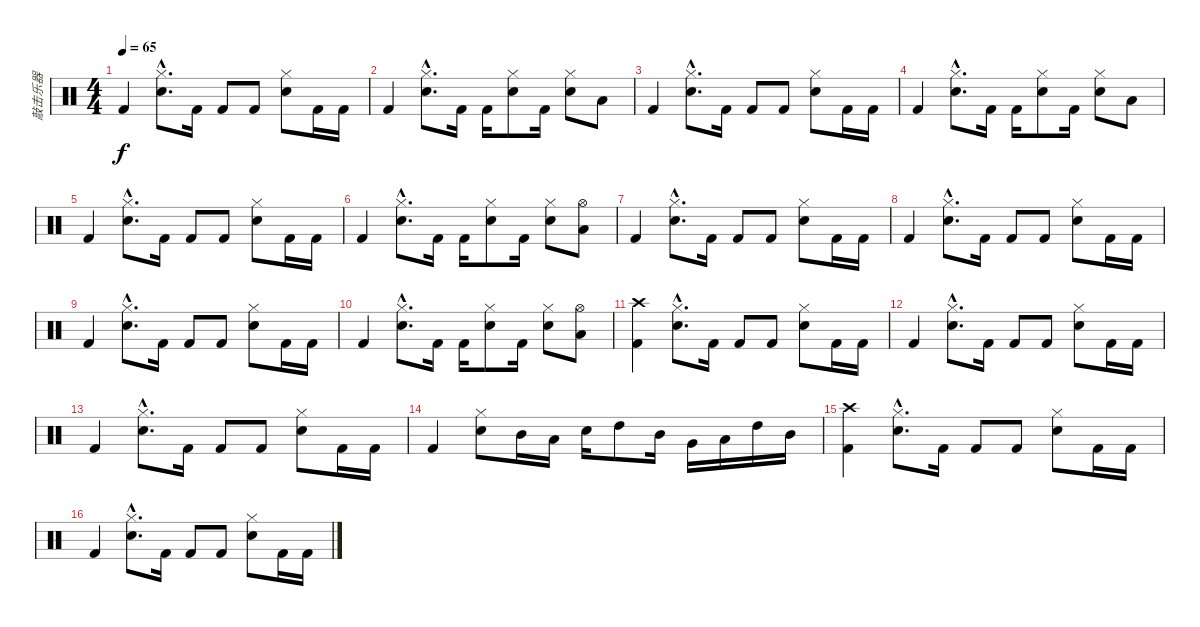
\track ("敲击乐器" "敲击乐器") {instrument percussion}
\staff {score}
\articulation defaults
\ts (4 4)
\tempo 65
\clef neutral
\ks c "Kick (hit) 2".4{dy f}
("Hi-Hat (closed)"{hac} "Electric Snare (hit)"{hac}).8{d} "Kick (hit) 2".16 "Kick (hit) 2".8 "Kick (hit) 2".8 ("Hi-Hat (closed)" "Electric Snare (hit)").8 "Kick (hit) 2".16 "Kick (hit) 2".16 |
"Kick (hit) 2".4 ("Hi-Hat (closed)"{hac} "Electric Snare (hit)"{hac}).8{d} "Kick (hit) 2".16 "Kick (hit) 2".16 ("Snare (hit) 2" "Hi-Hat (closed)").8 "Kick (hit) 2".16 ("Hi-Hat (closed)" "Snare (hit) 2").8 "Low Tom (hit)".8 |
"Kick (hit) 2".4 ("Hi-Hat (closed)"{hac} "Snare (hit) 2"{hac}).8{d} "Kick (hit) 2".16 "Kick (hit) 2".8 "Kick (hit) 2".8 ("Hi-Hat (closed)" "Snare (hit) 2").8 "Kick (hit) 2".16 "Kick (hit) 2".16 |
"Kick (hit) 2".4 ("Hi-Hat (closed)"{hac} "Electric Snare (hit)"{hac}).8{d} "Kick (hit) 2".16 "Kick (hit) 2".16 ("Snare (hit) 2" "Hi-Hat (closed)").8 "Kick (hit) 2".16 ("Hi-Hat (closed)" "Snare (hit) 2").8 "Low Tom (hit)".8 |
"Kick (hit) 2".4 ("Hi-Hat (closed)"{hac} "Snare (hit) 2"{hac}).8{d} "Kick (hit) 2".16 "Kick (hit) 2".8 "Kick (hit) 2".8 ("Hi-Hat (closed)" "Snare (hit) 2").8 "Kick (hit) 2".16 "Kick (hit) 2".16 |
"Kick (hit) 2".4 ("Hi-Hat (closed)"{hac} "Electric Snare (hit)"{hac}).8{d} "Kick (hit) 2".16 "Kick (hit) 2".16 ("Snare (hit) 2" "Hi-Hat (closed)").8 "Kick (hit) 2".16 ("Hi-Hat (closed)" "Snare (hit) 2").8 ("Hi-Hat (open)" "Low Tom (hit)").8 |
"Kick (hit) 2".4 ("Hi-Hat (closed)"{hac} "Snare (hit) 2"{hac}).8{d} "Kick (hit) 2".16 "Kick (hit) 2".8 "Kick (hit) 2".8 ("Hi-Hat (closed)" "Snare (hit) 2").8 "Kick (hit) 2".16 "Kick (hit) 2".16 |
"Kick (hit) 2".4 ("Hi-Hat (closed)"{hac} "Snare (hit) 2"{hac}).8{d} "Kick (hit) 2".16 "Kick (hit) 2".8 "Kick (hit) 2".8 ("Hi-Hat (closed)" "Snare (hit) 2").8 "Kick (hit) 2".16 "Kick (hit) 2".16 |
"Kick (hit) 2".4 ("Hi-Hat (closed)"{hac} "Snare (hit) 2"{hac}).8{d} "Kick (hit) 2".16 "Kick (hit) 2".8 "Kick (hit) 2".8 ("Hi-Hat (closed)" "Snare (hit) 2").8 "Kick (hit) 2".16 "Kick (hit) 2".16 |
"Kick (hit) 2".4 ("Hi-Hat (closed)"{hac} "Electric Snare (hit)"{hac}).8{d} "Kick (hit) 2".16 "Kick (hit) 2".16 ("Snare (hit) 2" "Hi-Hat (closed)").8 "Kick (hit) 2".16 ("Hi-Hat (closed)" "Snare (hit) 2").8 ("Hi-Hat (open)" "Low Tom (hit)").8 |
("Crash high (hit)" "Kick (hit) 2").4 ("Hi-Hat (closed)"{hac} "Snare (hit) 2"{hac}).8{d} "Kick (hit) 2".16 "Kick (hit) 2".8 "Kick (hit) 2".8 ("Hi-Hat (closed)" "Snare (hit) 2").8 "Kick (hit) 2".16 "Kick (hit) 2".16 |
"Kick (hit) 2".4 ("Hi-Hat (closed)"{hac} "Snare (hit) 2"{hac}).8{d} "Kick (hit) 2".16 "Kick (hit) 2".8 "Kick (hit) 2".8 ("Hi-Hat (closed)" "Snare (hit) 2").8 "Kick (hit) 2".16 "Kick (hit) 2".16 |
"Kick (hit) 2".4 ("Hi-Hat (closed)"{hac} "Snare (hit) 2"{hac}).8{d} "Kick (hit) 2".16 "Kick (hit) 2".8 "Kick (hit) 2".8 ("Hi-Hat (closed)" "Snare (hit) 2").8 "Kick (hit) 2".16 "Kick (hit) 2".16 |
"Kick (hit) 2".4 ("Hi-Hat (closed)" "Snare (hit) 2").8 "Mid Tom (hit)".16 "Low Tom (hit)".16 "Snare (hit) 2".16 "High Tom (hit)".8 "Mid Tom (hit)".16 "Very Low Tom (hit)".16 "Low Tom (hit)".16 "High Tom (hit)".16 "Mid Tom (hit)".16 |
("Crash high (hit)" "Kick (hit) 2").4 ("Hi-Hat (closed)"{hac} "Snare (hit) 2"{hac}).8{d} "Kick (hit) 2".16 "Kick (hit) 2".8 "Kick (hit) 2".8 ("Hi-Hat (closed)" "Snare (hit) 2").8 "Kick (hit) 2".16 "Kick (hit) 2".16 |
"Kick (hit) 2".4 ("Hi-Hat (closed)"{hac} "Snare (hit) 2"{hac}).8{d} "Kick (hit) 2".16 "Kick (hit) 2".8 "Kick (hit) 2".8 ("Hi-Hat (closed)" "Snare (hit) 2").8 "Kick (hit) 2".16 "Kick (hit) 2".16
